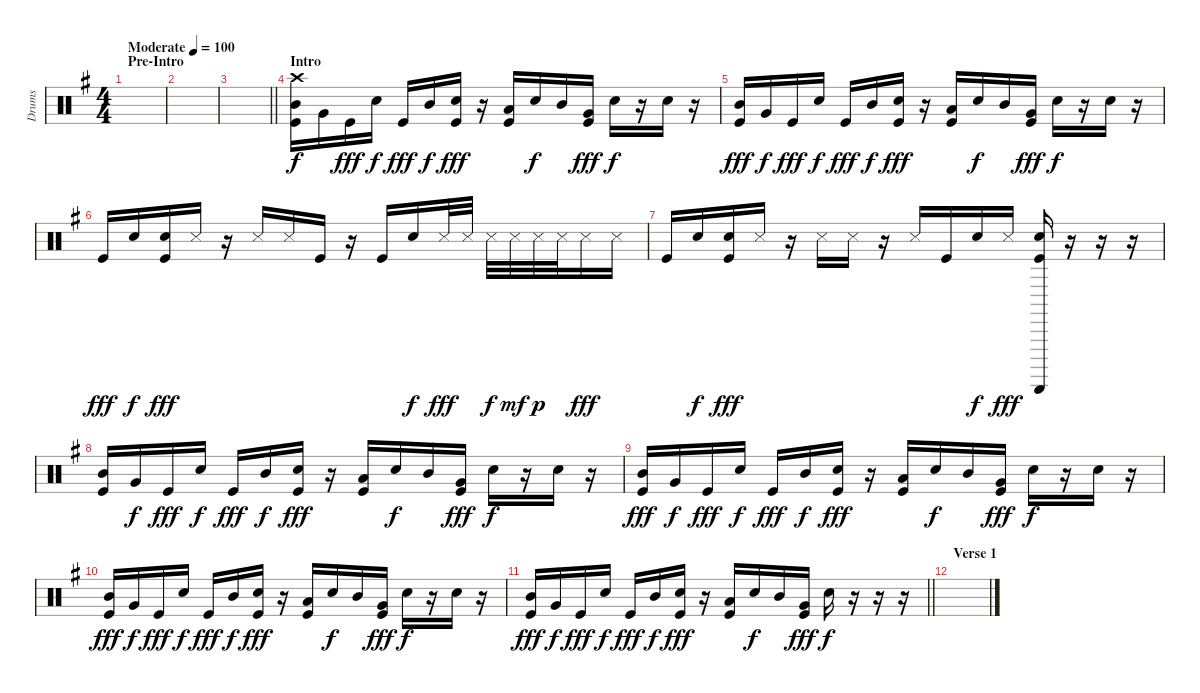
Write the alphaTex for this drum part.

\track ("Drums" "Drums") {instrument percussion}
\staff {score}
\articulation defaults
\ts (4 4)
\section ("" "Pre-Intro")
\tempo (100 "Moderate")
\clef neutral
\ks eminor
|
|
\barLineRight lightlight
|
\section ("" "Intro")
("Crash high (hit)" "Mid Tom (hit)" "Kick (hit)").16 "Very Low Tom (hit)".16{dy f} "Kick (hit)".16{dy fff} "Snare (hit) 2".16{dy f} "Kick (hit)".16{dy fff} "Mid Tom (hit)".16{dy f} ("Snare (hit) 2" "Kick (hit)").16{dy fff} r.16 ("Low Floor Tom (hit)" "Kick (hit)").16 "Snare (hit) 2".16{dy f} "Mid Tom (hit)".16 ("Very Low Tom (hit)" "Kick (hit)").16{dy fff} "Snare (hit) 2".16{dy f} r.16 "Snare (hit) 2".16 r.16 |
("Mid Tom (hit)" "Kick (hit)").16{dy fff} "Very Low Tom (hit)".16{dy f} "Kick (hit)".16{dy fff} "Snare (hit) 2".16{dy f} "Kick (hit)".16{dy fff} "Mid Tom (hit)".16{dy f} ("Snare (hit) 2" "Kick (hit)").16{dy fff} r.16 ("Low Floor Tom (hit)" "Kick (hit)").16 "Snare (hit) 2".16{dy f} "Mid Tom (hit)".16 ("Very Low Tom (hit)" "Kick (hit)").16{dy fff} "Snare (hit) 2".16{dy f} r.16 "Snare (hit) 2".16 r.16 |
"Kick (hit)".16{dy fff volume 16} "Hand Clap (hit)".16{dy f} ("Hand Clap (hit)" "Kick (hit)").16{dy fff} "Snare (side stick) 3".16 r.16 "Snare (side stick) 3".16 "Snare (side stick) 3".16 "Kick (hit)".16 r.16 "Kick (hit)".16 "Hand Clap (hit)".16{dy f} "Snare (side stick) 3".32{dy fff} "Snare (side stick) 3".32 "Snare (side stick) 3".32{dy f} "Snare (side stick) 3".32{dy mf} "Snare (side stick) 3".32{dy p} "Snare (side stick) 3".32 "Snare (side stick) 3".16{dy fff} "Snare (side stick) 3".16 |
"Kick (hit)".16 "Hand Clap (hit)".16{dy f} ("Hand Clap (hit)" "Kick (hit)").16{dy fff} "Snare (side stick) 3".16 r.16 "Snare (side stick) 3".16 "Snare (side stick) 3".16 r.16 "Snare (side stick) 3".16 "Kick (hit)".16 "Hand Clap (hit)".16{dy f} "Snare (side stick) 3".16{dy fff} ("Guiro (scrap-return)" "Hand Clap (hit)" "Kick (hit)").16 r.16 r.16 r.16 |
("Mid Tom (hit)" "Kick (hit)").16{volume 11} "Very Low Tom (hit)".16{dy f} "Kick (hit)".16{dy fff} "Snare (hit) 2".16{dy f} "Kick (hit)".16{dy fff} "Mid Tom (hit)".16{dy f} ("Snare (hit) 2" "Kick (hit)").16{dy fff} r.16 ("Low Floor Tom (hit)" "Kick (hit)").16 "Snare (hit) 2".16{dy f} "Mid Tom (hit)".16 ("Very Low Tom (hit)" "Kick (hit)").16{dy fff} "Snare (hit) 2".16{dy f} r.16 "Snare (hit) 2".16 r.16 |
("Mid Tom (hit)" "Kick (hit)").16{dy fff} "Very Low Tom (hit)".16{dy f} "Kick (hit)".16{dy fff} "Snare (hit) 2".16{dy f} "Kick (hit)".16{dy fff} "Mid Tom (hit)".16{dy f} ("Snare (hit) 2" "Kick (hit)").16{dy fff} r.16 ("Low Floor Tom (hit)" "Kick (hit)").16 "Snare (hit) 2".16{dy f} "Mid Tom (hit)".16 ("Very Low Tom (hit)" "Kick (hit)").16{dy fff} "Snare (hit) 2".16{dy f} r.16 "Snare (hit) 2".16 r.16 |
("Mid Tom (hit)" "Kick (hit)").16{dy fff} "Very Low Tom (hit)".16{dy f} "Kick (hit)".16{dy fff} "Snare (hit) 2".16{dy f} "Kick (hit)".16{dy fff} "Mid Tom (hit)".16{dy f} ("Snare (hit) 2" "Kick (hit)").16{dy fff} r.16 ("Low Floor Tom (hit)" "Kick (hit)").16 "Snare (hit) 2".16{dy f} "Mid Tom (hit)".16 ("Very Low Tom (hit)" "Kick (hit)").16{dy fff} "Snare (hit) 2".16{dy f} r.16 "Snare (hit) 2".16 r.16 |
\barLineRight lightlight
("Mid Tom (hit)" "Kick (hit)").16{dy fff} "Very Low Tom (hit)".16{dy f} "Kick (hit)".16{dy fff} "Snare (hit) 2".16{dy f} "Kick (hit)".16{dy fff} "Mid Tom (hit)".16{dy f} ("Snare (hit) 2" "Kick (hit)").16{dy fff} r.16 ("Low Floor Tom (hit)" "Kick (hit)").16 "Snare (hit) 2".16{dy f} "Mid Tom (hit)".16 ("Very Low Tom (hit)" "Kick (hit)").16{dy fff} "Snare (hit) 2".16{dy f} r.16 r.16 r.16 |
\section ("" "Verse 1")
